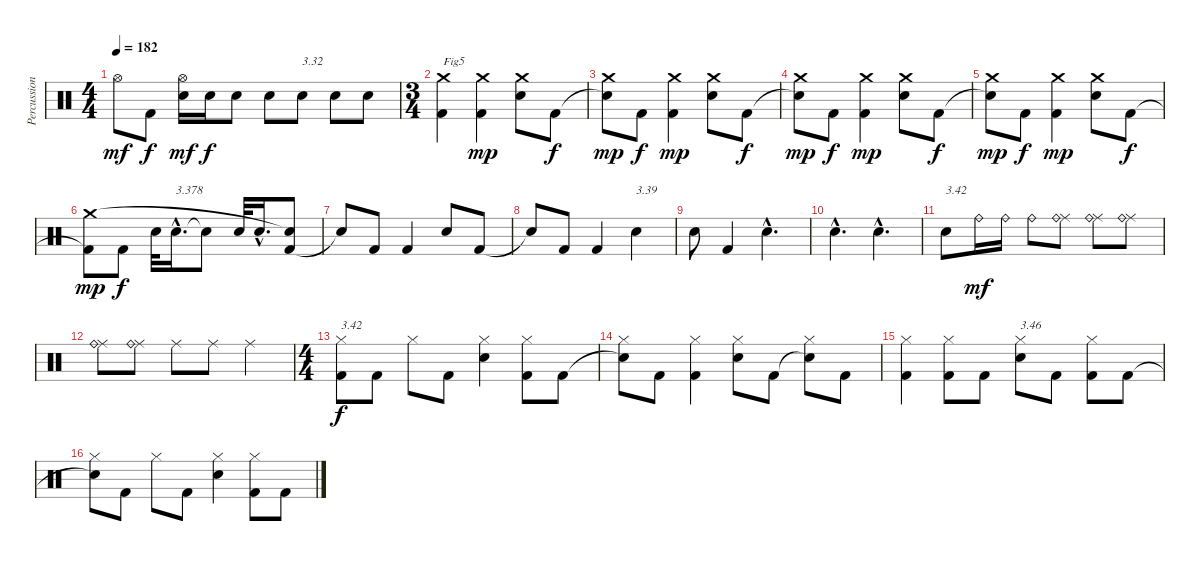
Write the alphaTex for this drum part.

\track ("Percussions" "Percussion") {instrument percussion}
\staff {score}
\articulation defaults
\ts (4 4)
\tempo 182
\clef neutral
\ks c "Hi-Hat (open)".8{dy mf} "Kick (hit) 2".8{dy f}
("Electric Snare (hit)" "Hi-Hat (open)").16{dy mf} "Electric Snare (hit)".16{dy f} "Electric Snare (hit)".8 "Electric Snare (hit)".8 "Electric Snare (hit)".8{txt "3.32"} "Electric Snare (hit)".8 "Electric Snare (hit)".8 |
\ts (3 4)
("Kick (hit) 2" "Crash medium (hit)").4{txt "Fig5"} ("Kick (hit) 2" "Crash medium (hit)").4{dy mp} ("Electric Snare (hit)" "Crash medium (hit)").8 "Kick (hit) 2".8{dy f} |
("Snare (hit)"{t} "Crash medium (hit)").8{dy mp} "Kick (hit) 2".8{dy f} ("Kick (hit) 2" "Crash medium (hit)").4{dy mp} ("Electric Snare (hit)" "Crash medium (hit)").8 "Kick (hit) 2".8{dy f} |
("Snare (hit)"{t} "Crash medium (hit)").8{dy mp} "Kick (hit) 2".8{dy f} ("Kick (hit) 2" "Crash medium (hit)").4{dy mp} ("Electric Snare (hit)" "Crash medium (hit)").8 "Kick (hit) 2".8{dy f} |
("Snare (hit)"{t} "Crash medium (hit)").8{dy mp} "Kick (hit) 2".8{dy f} ("Kick (hit) 2" "Crash medium (hit)").4{dy mp} ("Electric Snare (hit)" "Crash medium (hit)").8 "Kick (hit) 2".8{dy f} |
("Kick (hit) 2"{t} "Crash medium (hit)").8{dy mp} "Kick (hit) 2".8{dy f} "Electric Snare (hit)".32 "Electric Snare (hit)"{hac}.16{d txt "3.378"} "Snare (hit)"{t}.8 "Electric Snare (hit)".32 "Electric Snare (hit)"{hac}.16{d} ("Kick (hit) 2" "Snare (hit)"{t}).8 |
"Snare (hit)"{t}.8 "Kick (hit) 2".8 "Kick (hit) 2".4 "Electric Snare (hit)".8 "Kick (hit) 2".8 |
"Snare (hit)"{t}.8 "Kick (hit) 2".8 "Kick (hit) 2".4 "Electric Snare (hit)".4{txt "3.39"} |
"Electric Snare (hit)".8 "Kick (hit) 2".4 "Electric Snare (hit)"{hac}.4{d} |
"Electric Snare (hit)"{hac}.4{d} "Electric Snare (hit)"{hac}.4{d} |
"Electric Snare (hit)".8{txt "3.42"} "Ride (bell)".16{dy mf} "Ride (bell)".16 "Ride (bell)".8 ("Ride (middle)" "Ride (bell)").8 ("Ride (middle)" "Ride (bell)").8 ("Ride (middle)" "Ride (bell)").8 |
("Ride (middle)" "Ride (bell)").8 ("Ride (middle)" "Ride (bell)").8 "Ride (middle)".8 "Ride (middle)".8 "Ride (middle)".4 |
\ts (4 4)
("Kick (hit) 2" "Hi-Hat (closed)").8{txt "3.42" dy f} "Kick (hit) 2".8 "Hi-Hat (closed)".8 "Kick (hit) 2".8 ("Electric Snare (hit)" "Hi-Hat (closed)").4 ("Kick (hit) 2" "Hi-Hat (closed)").8 "Kick (hit) 2".8 |
("Snare (hit)"{t} "Hi-Hat (closed)").8 "Kick (hit) 2".8 ("Kick (hit) 2" "Hi-Hat (closed)").4 ("Electric Snare (hit)" "Hi-Hat (closed)").8 "Kick (hit) 2".8 ("Snare (hit)"{t} "Hi-Hat (closed)").8 "Kick (hit) 2".8 |
("Kick (hit) 2" "Hi-Hat (closed)").4 ("Kick (hit) 2" "Hi-Hat (closed)").8 "Kick (hit) 2".8 ("Electric Snare (hit)" "Hi-Hat (closed)").8{txt "3.46"} "Kick (hit) 2".8 ("Kick (hit) 2" "Hi-Hat (closed)").8 "Kick (hit) 2".8 |
("Snare (hit)"{t} "Hi-Hat (closed)").8 "Kick (hit) 2".8 "Hi-Hat (closed)".8 "Kick (hit) 2".8 ("Electric Snare (hit)" "Hi-Hat (closed)").4 ("Kick (hit) 2" "Hi-Hat (closed)").8 "Kick (hit) 2".8
